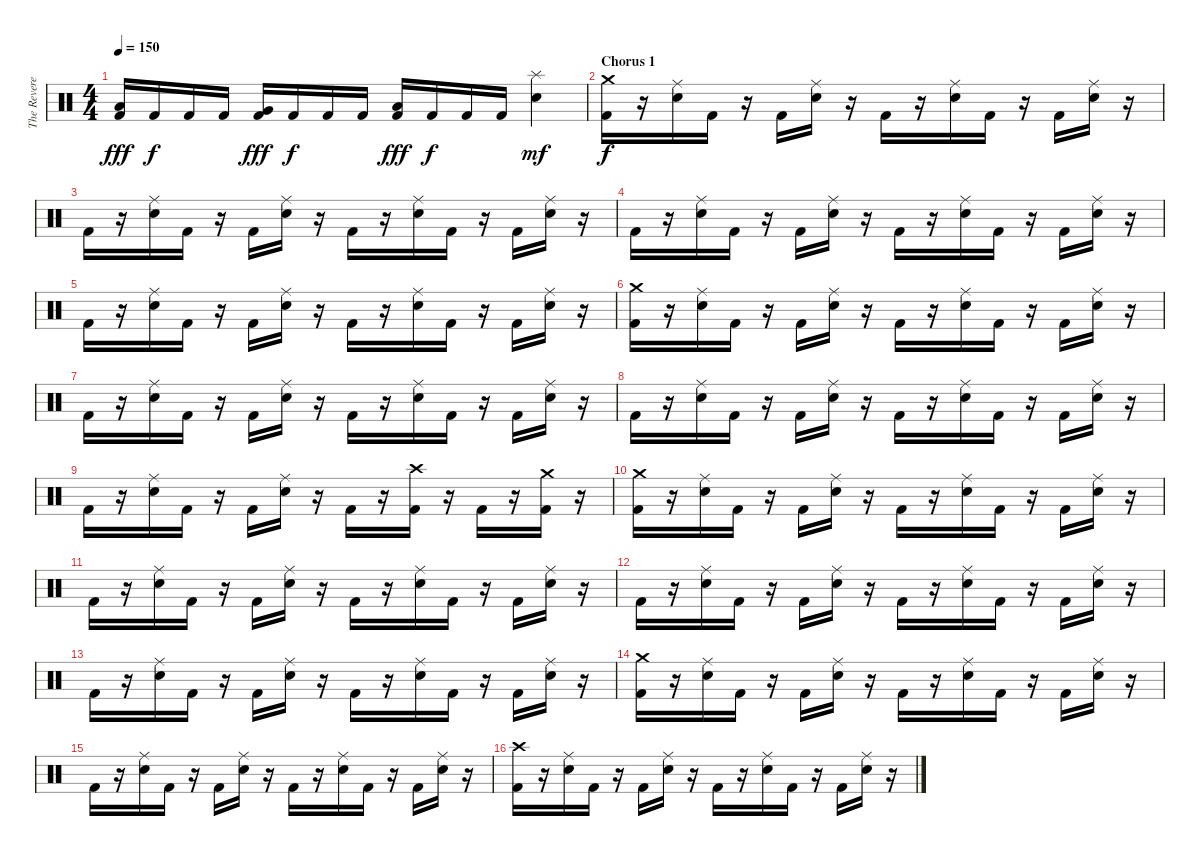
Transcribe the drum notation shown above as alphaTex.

\track ("The Reverend" "The Revere") {instrument percussion}
\staff {score}
\articulation defaults
\ts (4 4)
\tempo 150
\clef neutral
\ks c
("Low Floor Tom (hit)" "Kick (hit) 2").16{dy fff} "Kick (hit) 2".16{dy f} "Kick (hit) 2".16 "Kick (hit) 2".16 ("Very Low Tom (hit)" "Kick (hit) 2").16{dy fff} "Kick (hit) 2".16{dy f} "Kick (hit) 2".16 "Kick (hit) 2".16 ("Low Tom (hit)" "Kick (hit) 2").16{dy fff} "Kick (hit) 2".16{dy f} "Kick (hit) 2".16 "Kick (hit) 2".16 ("Splash (hit)" "Electric Snare (hit)").4{dy mf} |
\section ("" "Chorus 1")
("Crash medium (hit)" "Kick (hit) 2").16{dy f} r.16 ("Ride (middle)" "Electric Snare (hit)").16 "Kick (hit) 2".16 r.16 "Kick (hit) 2".16 ("Ride (middle)" "Electric Snare (hit)").16 r.16 "Kick (hit) 2".16 r.16 ("Ride (middle)" "Electric Snare (hit)").16 "Kick (hit) 2".16 r.16 "Kick (hit) 2".16 ("Ride (middle)" "Electric Snare (hit)").16 r.16 |
"Kick (hit) 2".16 r.16 ("Ride (middle)" "Electric Snare (hit)").16 "Kick (hit) 2".16 r.16 "Kick (hit) 2".16 ("Ride (middle)" "Electric Snare (hit)").16 r.16 "Kick (hit) 2".16 r.16 ("Ride (middle)" "Electric Snare (hit)").16 "Kick (hit) 2".16 r.16 "Kick (hit) 2".16 ("Ride (middle)" "Electric Snare (hit)").16 r.16 |
"Kick (hit) 2".16 r.16 ("Ride (middle)" "Electric Snare (hit)").16 "Kick (hit) 2".16 r.16 "Kick (hit) 2".16 ("Ride (middle)" "Electric Snare (hit)").16 r.16 "Kick (hit) 2".16 r.16 ("Ride (middle)" "Electric Snare (hit)").16 "Kick (hit) 2".16 r.16 "Kick (hit) 2".16 ("Ride (middle)" "Electric Snare (hit)").16 r.16 |
"Kick (hit) 2".16 r.16 ("Ride (middle)" "Electric Snare (hit)").16 "Kick (hit) 2".16 r.16 "Kick (hit) 2".16 ("Ride (middle)" "Electric Snare (hit)").16 r.16 "Kick (hit) 2".16 r.16 ("Ride (middle)" "Electric Snare (hit)").16 "Kick (hit) 2".16 r.16 "Kick (hit) 2".16 ("Ride (middle)" "Electric Snare (hit)").16 r.16 |
("Crash medium (hit)" "Kick (hit) 2").16 r.16 ("Ride (middle)" "Electric Snare (hit)").16 "Kick (hit) 2".16 r.16 "Kick (hit) 2".16 ("Ride (middle)" "Electric Snare (hit)").16 r.16 "Kick (hit) 2".16 r.16 ("Ride (middle)" "Electric Snare (hit)").16 "Kick (hit) 2".16 r.16 "Kick (hit) 2".16 ("Ride (middle)" "Electric Snare (hit)").16 r.16 |
"Kick (hit) 2".16 r.16 ("Ride (middle)" "Electric Snare (hit)").16 "Kick (hit) 2".16 r.16 "Kick (hit) 2".16 ("Ride (middle)" "Electric Snare (hit)").16 r.16 "Kick (hit) 2".16 r.16 ("Ride (middle)" "Electric Snare (hit)").16 "Kick (hit) 2".16 r.16 "Kick (hit) 2".16 ("Ride (middle)" "Electric Snare (hit)").16 r.16 |
"Kick (hit) 2".16 r.16 ("Ride (middle)" "Electric Snare (hit)").16 "Kick (hit) 2".16 r.16 "Kick (hit) 2".16 ("Ride (middle)" "Electric Snare (hit)").16 r.16 "Kick (hit) 2".16 r.16 ("Ride (middle)" "Electric Snare (hit)").16 "Kick (hit) 2".16 r.16 "Kick (hit) 2".16 ("Ride (middle)" "Electric Snare (hit)").16 r.16 |
"Kick (hit) 2".16 r.16 ("Ride (middle)" "Electric Snare (hit)").16 "Kick (hit) 2".16 r.16 "Kick (hit) 2".16 ("Ride (middle)" "Electric Snare (hit)").16 r.16 "Kick (hit) 2".16 r.16 ("Crash high (hit)" "Kick (hit) 2").16 r.16 "Kick (hit) 2".16 r.16 ("Crash medium (hit)" "Kick (hit) 2").16 r.16 |
("Crash medium (hit)" "Kick (hit) 2").16 r.16 ("Ride (middle)" "Electric Snare (hit)").16 "Kick (hit) 2".16 r.16 "Kick (hit) 2".16 ("Ride (middle)" "Electric Snare (hit)").16 r.16 "Kick (hit) 2".16 r.16 ("Ride (middle)" "Electric Snare (hit)").16 "Kick (hit) 2".16 r.16 "Kick (hit) 2".16 ("Ride (middle)" "Electric Snare (hit)").16 r.16 |
"Kick (hit) 2".16 r.16 ("Ride (middle)" "Electric Snare (hit)").16 "Kick (hit) 2".16 r.16 "Kick (hit) 2".16 ("Ride (middle)" "Electric Snare (hit)").16 r.16 "Kick (hit) 2".16 r.16 ("Ride (middle)" "Electric Snare (hit)").16 "Kick (hit) 2".16 r.16 "Kick (hit) 2".16 ("Ride (middle)" "Electric Snare (hit)").16 r.16 |
"Kick (hit) 2".16 r.16 ("Ride (middle)" "Electric Snare (hit)").16 "Kick (hit) 2".16 r.16 "Kick (hit) 2".16 ("Ride (middle)" "Electric Snare (hit)").16 r.16 "Kick (hit) 2".16 r.16 ("Ride (middle)" "Electric Snare (hit)").16 "Kick (hit) 2".16 r.16 "Kick (hit) 2".16 ("Ride (middle)" "Electric Snare (hit)").16 r.16 |
"Kick (hit) 2".16 r.16 ("Ride (middle)" "Electric Snare (hit)").16 "Kick (hit) 2".16 r.16 "Kick (hit) 2".16 ("Ride (middle)" "Electric Snare (hit)").16 r.16 "Kick (hit) 2".16 r.16 ("Ride (middle)" "Electric Snare (hit)").16 "Kick (hit) 2".16 r.16 "Kick (hit) 2".16 ("Ride (middle)" "Electric Snare (hit)").16 r.16 |
("Crash medium (hit)" "Kick (hit) 2").16 r.16 ("Ride (middle)" "Electric Snare (hit)").16 "Kick (hit) 2".16 r.16 "Kick (hit) 2".16 ("Ride (middle)" "Electric Snare (hit)").16 r.16 "Kick (hit) 2".16 r.16 ("Ride (middle)" "Electric Snare (hit)").16 "Kick (hit) 2".16 r.16 "Kick (hit) 2".16 ("Ride (middle)" "Electric Snare (hit)").16 r.16 |
"Kick (hit) 2".16 r.16 ("Ride (middle)" "Electric Snare (hit)").16 "Kick (hit) 2".16 r.16 "Kick (hit) 2".16 ("Ride (middle)" "Electric Snare (hit)").16 r.16 "Kick (hit) 2".16 r.16 ("Ride (middle)" "Electric Snare (hit)").16 "Kick (hit) 2".16 r.16 "Kick (hit) 2".16 ("Ride (middle)" "Electric Snare (hit)").16 r.16 |
("Crash high (hit)" "Kick (hit) 2").16 r.16 ("Ride (middle)" "Electric Snare (hit)").16 "Kick (hit) 2".16 r.16 "Kick (hit) 2".16 ("Ride (middle)" "Electric Snare (hit)").16 r.16 "Kick (hit) 2".16 r.16 ("Ride (middle)" "Electric Snare (hit)").16 "Kick (hit) 2".16 r.16 "Kick (hit) 2".16 ("Ride (middle)" "Electric Snare (hit)").16 r.16
